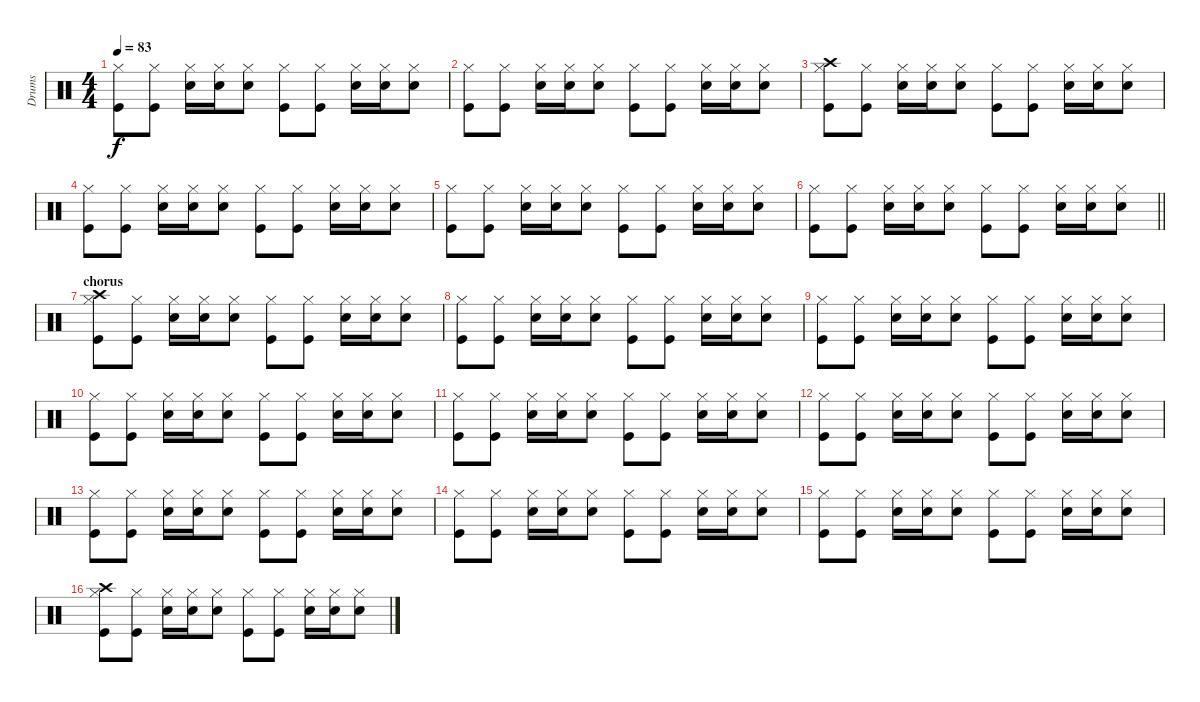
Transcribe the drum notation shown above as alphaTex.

\track ("Drums" "Drums") {instrument percussion}
\staff {score}
\articulation defaults
\ts (4 4)
\tempo 83
\clef neutral
\ks c
("Hi-Hat (closed)" "Kick (hit)").8{dy f} ("Hi-Hat (closed)" "Kick (hit)").8 ("Hi-Hat (closed)" "Electric Snare (hit)").16 ("Hi-Hat (closed)" "Snare (hit) 2").16 ("Hi-Hat (closed)" "Snare (hit) 2").8 ("Hi-Hat (closed)" "Kick (hit)").8 ("Hi-Hat (closed)" "Kick (hit)").8 ("Hi-Hat (closed)" "Electric Snare (hit)").16 ("Hi-Hat (closed)" "Snare (hit) 2").16 ("Hi-Hat (closed)" "Snare (hit) 2").8 |
("Hi-Hat (closed)" "Kick (hit)").8 ("Hi-Hat (closed)" "Kick (hit)").8 ("Hi-Hat (closed)" "Electric Snare (hit)").16 ("Hi-Hat (closed)" "Snare (hit) 2").16 ("Hi-Hat (closed)" "Snare (hit) 2").8 ("Hi-Hat (closed)" "Kick (hit)").8 ("Hi-Hat (closed)" "Kick (hit)").8 ("Hi-Hat (closed)" "Electric Snare (hit)").16 ("Hi-Hat (closed)" "Snare (hit) 2").16 ("Hi-Hat (closed)" "Snare (hit) 2").8 |
("Crash high (hit)" "Hi-Hat (closed)" "Kick (hit)").8 ("Hi-Hat (closed)" "Kick (hit)").8 ("Hi-Hat (closed)" "Electric Snare (hit)").16 ("Hi-Hat (closed)" "Snare (hit) 2").16 ("Hi-Hat (closed)" "Snare (hit) 2").8 ("Hi-Hat (closed)" "Kick (hit)").8 ("Hi-Hat (closed)" "Kick (hit)").8 ("Hi-Hat (closed)" "Electric Snare (hit)").16 ("Hi-Hat (closed)" "Snare (hit) 2").16 ("Hi-Hat (closed)" "Snare (hit) 2").8 |
("Hi-Hat (closed)" "Kick (hit)").8 ("Hi-Hat (closed)" "Kick (hit)").8 ("Hi-Hat (closed)" "Electric Snare (hit)").16 ("Hi-Hat (closed)" "Snare (hit) 2").16 ("Hi-Hat (closed)" "Snare (hit) 2").8 ("Hi-Hat (closed)" "Kick (hit)").8 ("Hi-Hat (closed)" "Kick (hit)").8 ("Hi-Hat (closed)" "Electric Snare (hit)").16 ("Hi-Hat (closed)" "Snare (hit) 2").16 ("Hi-Hat (closed)" "Snare (hit) 2").8 |
("Hi-Hat (closed)" "Kick (hit)").8 ("Hi-Hat (closed)" "Kick (hit)").8 ("Hi-Hat (closed)" "Electric Snare (hit)").16 ("Hi-Hat (closed)" "Snare (hit) 2").16 ("Hi-Hat (closed)" "Snare (hit) 2").8 ("Hi-Hat (closed)" "Kick (hit)").8 ("Hi-Hat (closed)" "Kick (hit)").8 ("Hi-Hat (closed)" "Electric Snare (hit)").16 ("Hi-Hat (closed)" "Snare (hit) 2").16 ("Hi-Hat (closed)" "Snare (hit) 2").8 |
\barLineRight lightlight
("Hi-Hat (closed)" "Kick (hit)").8 ("Hi-Hat (closed)" "Kick (hit)").8 ("Hi-Hat (closed)" "Electric Snare (hit)").16 ("Hi-Hat (closed)" "Snare (hit) 2").16 ("Hi-Hat (closed)" "Snare (hit) 2").8 ("Hi-Hat (closed)" "Kick (hit)").8 ("Hi-Hat (closed)" "Kick (hit)").8 ("Hi-Hat (closed)" "Electric Snare (hit)").16 ("Hi-Hat (closed)" "Snare (hit) 2").16 ("Hi-Hat (closed)" "Snare (hit) 2").8 |
\section ("" "chorus")
("Crash high (hit)" "Hi-Hat (closed)" "Kick (hit)").8 ("Hi-Hat (closed)" "Kick (hit)").8 ("Hi-Hat (closed)" "Electric Snare (hit)").16 ("Hi-Hat (closed)" "Snare (hit) 2").16 ("Hi-Hat (closed)" "Snare (hit) 2").8 ("Hi-Hat (closed)" "Kick (hit)").8 ("Hi-Hat (closed)" "Kick (hit)").8 ("Hi-Hat (closed)" "Electric Snare (hit)").16 ("Hi-Hat (closed)" "Snare (hit) 2").16 ("Hi-Hat (closed)" "Snare (hit) 2").8 |
("Hi-Hat (closed)" "Kick (hit)").8 ("Hi-Hat (closed)" "Kick (hit)").8 ("Hi-Hat (closed)" "Electric Snare (hit)").16 ("Hi-Hat (closed)" "Snare (hit) 2").16 ("Hi-Hat (closed)" "Snare (hit) 2").8 ("Hi-Hat (closed)" "Kick (hit)").8 ("Hi-Hat (closed)" "Kick (hit)").8 ("Hi-Hat (closed)" "Electric Snare (hit)").16 ("Hi-Hat (closed)" "Snare (hit) 2").16 ("Hi-Hat (closed)" "Snare (hit) 2").8 |
("Hi-Hat (closed)" "Kick (hit)").8 ("Hi-Hat (closed)" "Kick (hit)").8 ("Hi-Hat (closed)" "Electric Snare (hit)").16 ("Hi-Hat (closed)" "Snare (hit) 2").16 ("Hi-Hat (closed)" "Snare (hit) 2").8 ("Hi-Hat (closed)" "Kick (hit)").8 ("Hi-Hat (closed)" "Kick (hit)").8 ("Hi-Hat (closed)" "Electric Snare (hit)").16 ("Hi-Hat (closed)" "Snare (hit) 2").16 ("Hi-Hat (closed)" "Snare (hit) 2").8 |
("Hi-Hat (closed)" "Kick (hit)").8 ("Hi-Hat (closed)" "Kick (hit)").8 ("Hi-Hat (closed)" "Electric Snare (hit)").16 ("Hi-Hat (closed)" "Snare (hit) 2").16 ("Hi-Hat (closed)" "Snare (hit) 2").8 ("Hi-Hat (closed)" "Kick (hit)").8 ("Hi-Hat (closed)" "Kick (hit)").8 ("Hi-Hat (closed)" "Electric Snare (hit)").16 ("Hi-Hat (closed)" "Snare (hit) 2").16 ("Hi-Hat (closed)" "Snare (hit) 2").8 |
("Hi-Hat (closed)" "Kick (hit)").8 ("Hi-Hat (closed)" "Kick (hit)").8 ("Hi-Hat (closed)" "Electric Snare (hit)").16 ("Hi-Hat (closed)" "Snare (hit) 2").16 ("Hi-Hat (closed)" "Snare (hit) 2").8 ("Hi-Hat (closed)" "Kick (hit)").8 ("Hi-Hat (closed)" "Kick (hit)").8 ("Hi-Hat (closed)" "Electric Snare (hit)").16 ("Hi-Hat (closed)" "Snare (hit) 2").16 ("Hi-Hat (closed)" "Snare (hit) 2").8 |
("Hi-Hat (closed)" "Kick (hit)").8 ("Hi-Hat (closed)" "Kick (hit)").8 ("Hi-Hat (closed)" "Electric Snare (hit)").16 ("Hi-Hat (closed)" "Snare (hit) 2").16 ("Hi-Hat (closed)" "Snare (hit) 2").8 ("Hi-Hat (closed)" "Kick (hit)").8 ("Hi-Hat (closed)" "Kick (hit)").8 ("Hi-Hat (closed)" "Electric Snare (hit)").16 ("Hi-Hat (closed)" "Snare (hit) 2").16 ("Hi-Hat (closed)" "Snare (hit) 2").8 |
("Hi-Hat (closed)" "Kick (hit)").8 ("Hi-Hat (closed)" "Kick (hit)").8 ("Hi-Hat (closed)" "Electric Snare (hit)").16 ("Hi-Hat (closed)" "Snare (hit) 2").16 ("Hi-Hat (closed)" "Snare (hit) 2").8 ("Hi-Hat (closed)" "Kick (hit)").8 ("Hi-Hat (closed)" "Kick (hit)").8 ("Hi-Hat (closed)" "Electric Snare (hit)").16 ("Hi-Hat (closed)" "Snare (hit) 2").16 ("Hi-Hat (closed)" "Snare (hit) 2").8 |
("Hi-Hat (closed)" "Kick (hit)").8 ("Hi-Hat (closed)" "Kick (hit)").8 ("Hi-Hat (closed)" "Electric Snare (hit)").16 ("Hi-Hat (closed)" "Snare (hit) 2").16 ("Hi-Hat (closed)" "Snare (hit) 2").8 ("Hi-Hat (closed)" "Kick (hit)").8 ("Hi-Hat (closed)" "Kick (hit)").8 ("Hi-Hat (closed)" "Electric Snare (hit)").16 ("Hi-Hat (closed)" "Snare (hit) 2").16 ("Hi-Hat (closed)" "Snare (hit) 2").8 |
("Hi-Hat (closed)" "Kick (hit)").8 ("Hi-Hat (closed)" "Kick (hit)").8 ("Hi-Hat (closed)" "Electric Snare (hit)").16 ("Hi-Hat (closed)" "Snare (hit) 2").16 ("Hi-Hat (closed)" "Snare (hit) 2").8 ("Hi-Hat (closed)" "Kick (hit)").8 ("Hi-Hat (closed)" "Kick (hit)").8 ("Hi-Hat (closed)" "Electric Snare (hit)").16 ("Hi-Hat (closed)" "Snare (hit) 2").16 ("Hi-Hat (closed)" "Snare (hit) 2").8 |
("Crash high (hit)" "Hi-Hat (closed)" "Kick (hit)").8 ("Hi-Hat (closed)" "Kick (hit)").8 ("Hi-Hat (closed)" "Electric Snare (hit)").16 ("Hi-Hat (closed)" "Snare (hit) 2").16 ("Hi-Hat (closed)" "Snare (hit) 2").8 ("Hi-Hat (closed)" "Kick (hit)").8 ("Hi-Hat (closed)" "Kick (hit)").8 ("Hi-Hat (closed)" "Electric Snare (hit)").16 ("Hi-Hat (closed)" "Snare (hit) 2").16 ("Hi-Hat (closed)" "Snare (hit) 2").8
